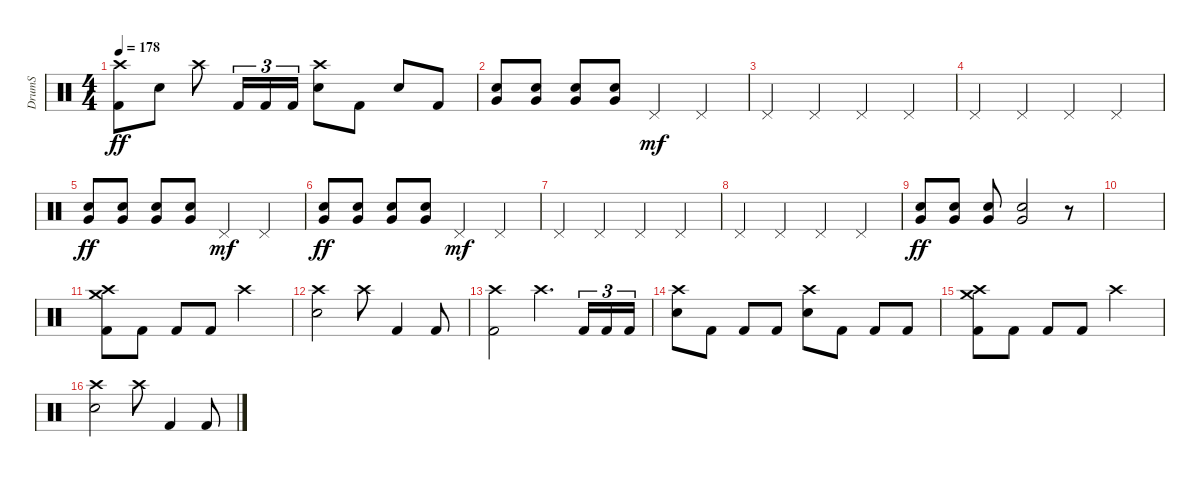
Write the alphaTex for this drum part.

\track ("DrumS" "DrumS") {instrument percussion}
\staff {score}
\articulation defaults
\ts (4 4)
\tempo 178
\clef neutral
\ks c
("Crash high (hit)" "Kick (hit) 2").8{dy ff} "Electric Snare (hit)".8 "Crash high (hit)".8 "Kick (hit) 2".16{tu (3 2)} "Kick (hit) 2".16{tu (3 2)} "Kick (hit) 2".16{tu (3 2)} ("Crash high (hit)" "Electric Snare (hit)").8 "Kick (hit) 2".8 "Electric Snare (hit)".8 "Kick (hit) 2".8 |
("Very Low Tom (hit)" "Electric Snare (hit)").8 ("Very Low Tom (hit)" "Electric Snare (hit)").8 ("Very Low Tom (hit)" "Electric Snare (hit)").8 ("Very Low Tom (hit)" "Electric Snare (hit)").8 "Pedal Hi-Hat (hit)".4{dy mf} "Pedal Hi-Hat (hit)".4 |
"Pedal Hi-Hat (hit)".4 "Pedal Hi-Hat (hit)".4 "Pedal Hi-Hat (hit)".4 "Pedal Hi-Hat (hit)".4 |
"Pedal Hi-Hat (hit)".4 "Pedal Hi-Hat (hit)".4 "Pedal Hi-Hat (hit)".4 "Pedal Hi-Hat (hit)".4 |
("Very Low Tom (hit)" "Electric Snare (hit)").8{dy ff} ("Very Low Tom (hit)" "Electric Snare (hit)").8 ("Very Low Tom (hit)" "Electric Snare (hit)").8 ("Very Low Tom (hit)" "Electric Snare (hit)").8 "Pedal Hi-Hat (hit)".4{dy mf} "Pedal Hi-Hat (hit)".4 |
("Very Low Tom (hit)" "Electric Snare (hit)").8{dy ff} ("Very Low Tom (hit)" "Electric Snare (hit)").8 ("Very Low Tom (hit)" "Electric Snare (hit)").8 ("Very Low Tom (hit)" "Electric Snare (hit)").8 "Pedal Hi-Hat (hit)".4{dy mf} "Pedal Hi-Hat (hit)".4 |
"Pedal Hi-Hat (hit)".4 "Pedal Hi-Hat (hit)".4 "Pedal Hi-Hat (hit)".4 "Pedal Hi-Hat (hit)".4 |
"Pedal Hi-Hat (hit)".4 "Pedal Hi-Hat (hit)".4 "Pedal Hi-Hat (hit)".4 "Pedal Hi-Hat (hit)".4 |
("Very Low Tom (hit)" "Electric Snare (hit)").8{dy ff} ("Very Low Tom (hit)" "Electric Snare (hit)").8 ("Very Low Tom (hit)" "Electric Snare (hit)").8 ("Very Low Tom (hit)" "Electric Snare (hit)").2 r.8 |
|
("Crash high (hit)" "Crash medium (hit)" "Kick (hit) 2").8 "Kick (hit) 2".8 "Kick (hit) 2".8 "Kick (hit) 2".8 "Crash high (hit)".2 |
("Crash high (hit)" "Electric Snare (hit)").2 "Crash high (hit)".8 "Kick (hit) 2".4 "Kick (hit) 2".8 |
("Crash high (hit)" "Kick (hit) 2").2 "Crash high (hit)".4{d} "Kick (hit) 2".16{tu (3 2)} "Kick (hit) 2".16{tu (3 2)} "Kick (hit) 2".16{tu (3 2)} |
("Crash high (hit)" "Electric Snare (hit)").8 "Kick (hit) 2".8 "Kick (hit) 2".8 "Kick (hit) 2".8 ("Crash high (hit)" "Electric Snare (hit)").8 "Kick (hit) 2".8 "Kick (hit) 2".8 "Kick (hit) 2".8 |
("Crash high (hit)" "Crash medium (hit)" "Kick (hit) 2").8 "Kick (hit) 2".8 "Kick (hit) 2".8 "Kick (hit) 2".8 "Crash high (hit)".2 |
("Crash high (hit)" "Electric Snare (hit)").2 "Crash high (hit)".8 "Kick (hit) 2".4 "Kick (hit) 2".8
